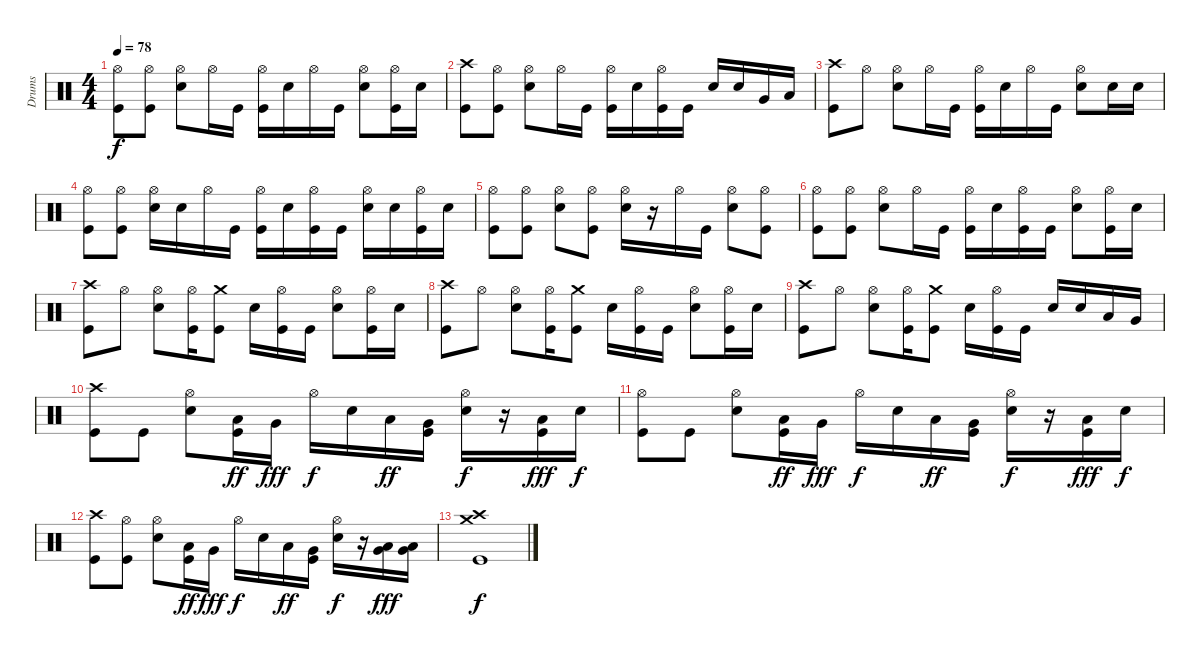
\track ("Drums" "Drums") {instrument percussion}
\staff {score}
\articulation defaults
\ts (4 4)
\tempo 78
\clef neutral
\ks c
("Hi-Hat (open)" "Kick (hit)").8{dy f} ("Hi-Hat (open)" "Kick (hit)").8 ("Hi-Hat (open)" "Electric Snare (hit)").8 "Hi-Hat (open)".16 "Kick (hit)".16 ("Hi-Hat (open)" "Kick (hit)").16 "Electric Snare (hit)".16 "Hi-Hat (open)".16 "Kick (hit)".16 ("Hi-Hat (open)" "Electric Snare (hit)").8 ("Hi-Hat (open)" "Kick (hit)").16 "Electric Snare (hit)".16 |
("Crash high (hit)" "Kick (hit)").8 ("Hi-Hat (open)" "Kick (hit)").8 ("Hi-Hat (open)" "Electric Snare (hit)").8 "Hi-Hat (open)".16 "Kick (hit)".16 ("Hi-Hat (open)" "Kick (hit)").16 "Electric Snare (hit)".16 ("Hi-Hat (open)" "Kick (hit)").16 "Kick (hit)".16 "Electric Snare (hit)".16 "Electric Snare (hit)".16 "Very Low Tom (hit)".16 "Low Floor Tom (hit)".16 |
("Crash high (hit)" "Kick (hit)").8 "Hi-Hat (open)".8 ("Hi-Hat (open)" "Electric Snare (hit)").8 "Hi-Hat (open)".16 "Kick (hit)".16 ("Hi-Hat (open)" "Kick (hit)").16 "Electric Snare (hit)".16 "Hi-Hat (open)".16 "Kick (hit)".16 ("Hi-Hat (open)" "Electric Snare (hit)").8 "Electric Snare (hit)".16 "Electric Snare (hit)".16 |
("Hi-Hat (open)" "Kick (hit)").8 ("Hi-Hat (open)" "Kick (hit)").8 ("Hi-Hat (open)" "Electric Snare (hit)").16 "Electric Snare (hit)".16 "Hi-Hat (open)".16 "Kick (hit)".16 ("Hi-Hat (open)" "Kick (hit)").16 "Electric Snare (hit)".16 ("Hi-Hat (open)" "Kick (hit)").16 "Kick (hit)".16 ("Hi-Hat (open)" "Electric Snare (hit)").16 "Electric Snare (hit)".16 ("Hi-Hat (open)" "Kick (hit)").16 "Electric Snare (hit)".16 |
("Hi-Hat (open)" "Kick (hit)").8 ("Hi-Hat (open)" "Kick (hit)").8 ("Hi-Hat (open)" "Electric Snare (hit)").8 ("Hi-Hat (open)" "Kick (hit)").8 ("Hi-Hat (open)" "Electric Snare (hit)").16 r.16 "Hi-Hat (open)".16 "Kick (hit)".16 ("Hi-Hat (open)" "Electric Snare (hit)").8 ("Hi-Hat (open)" "Kick (hit)").8 |
("Hi-Hat (open)" "Kick (hit)").8 ("Hi-Hat (open)" "Kick (hit)").8 ("Hi-Hat (open)" "Electric Snare (hit)").8 "Hi-Hat (open)".16 "Kick (hit)".16 ("Hi-Hat (open)" "Kick (hit)").16 "Electric Snare (hit)".16 ("Hi-Hat (open)" "Kick (hit)").16 "Kick (hit)".16 ("Hi-Hat (open)" "Electric Snare (hit)").8 ("Hi-Hat (open)" "Kick (hit)").16 "Electric Snare (hit)".16 |
("Crash high (hit)" "Kick (hit)").8 "Hi-Hat (open)".8 ("Hi-Hat (open)" "Electric Snare (hit)").8 ("Hi-Hat (open)" "Kick (hit)").16 ("Crash medium (hit)" "Kick (hit)").8 "Electric Snare (hit)".16 ("Hi-Hat (open)" "Kick (hit)").16 "Kick (hit)".16 ("Hi-Hat (open)" "Electric Snare (hit)").8 ("Hi-Hat (open)" "Kick (hit)").16 "Electric Snare (hit)".16 |
("Crash high (hit)" "Kick (hit)").8 "Hi-Hat (open)".8 ("Hi-Hat (open)" "Electric Snare (hit)").8 ("Hi-Hat (open)" "Kick (hit)").16 ("Crash medium (hit)" "Kick (hit)").8 "Electric Snare (hit)".16 ("Hi-Hat (open)" "Kick (hit)").16 "Kick (hit)".16 ("Hi-Hat (open)" "Electric Snare (hit)").8 ("Hi-Hat (open)" "Kick (hit)").16 "Electric Snare (hit)".16 |
("Crash high (hit)" "Kick (hit)").8 "Hi-Hat (open)".8 ("Hi-Hat (open)" "Electric Snare (hit)").8 ("Hi-Hat (open)" "Kick (hit)").16 ("Crash medium (hit)" "Kick (hit)").8 "Electric Snare (hit)".16 ("Hi-Hat (open)" "Kick (hit)").16 "Kick (hit)".16 "Electric Snare (hit)".16 "Electric Snare (hit)".16 "Low Tom (hit)".16 "Very Low Tom (hit)".16 |
("Crash high (hit)" "Kick (hit)").8 "Kick (hit)".8 ("Hi-Hat (open)" "Electric Snare (hit)").8 ("Low Tom (hit)" "Kick (hit)").16{dy ff} "Very Low Tom (hit)".16{dy fff} "Hi-Hat (open)".16{dy f} "Electric Snare (hit)".16 "Low Tom (hit)".16{dy ff} ("Very Low Tom (hit)" "Kick (hit)").16 ("Hi-Hat (open)" "Electric Snare (hit)").16{dy f} r.16 ("Low Floor Tom (hit)" "Kick (hit)").16{dy fff} "Electric Snare (hit)".16{dy f} |
("Hi-Hat (open)" "Kick (hit)").8 "Kick (hit)".8 ("Hi-Hat (open)" "Electric Snare (hit)").8 ("Low Tom (hit)" "Kick (hit)").16{dy ff} "Very Low Tom (hit)".16{dy fff} "Hi-Hat (open)".16{dy f} "Electric Snare (hit)".16 "Low Tom (hit)".16{dy ff} ("Very Low Tom (hit)" "Kick (hit)").16 ("Hi-Hat (open)" "Electric Snare (hit)").16{dy f} r.16 ("Low Floor Tom (hit)" "Kick (hit)").16{dy fff} "Electric Snare (hit)".16{dy f} |
("Crash high (hit)" "Kick (hit)").8 ("Hi-Hat (open)" "Kick (hit)").8 ("Hi-Hat (open)" "Electric Snare (hit)").8 ("Low Tom (hit)" "Kick (hit)").16{dy ff} "Very Low Tom (hit)".16{dy fff} "Hi-Hat (open)".16{dy f} "Electric Snare (hit)".16 "Low Tom (hit)".16{dy ff} ("Very Low Tom (hit)" "Kick (hit)").16 ("Hi-Hat (open)" "Electric Snare (hit)").16{dy f} r.16 ("Very Low Tom (hit)" "Low Floor Tom (hit)").16{dy fff} ("Very Low Tom (hit)" "Low Floor Tom (hit)").16 |
("Crash medium (hit)" "Crash high (hit)" "Kick (hit)").1{dy f}
